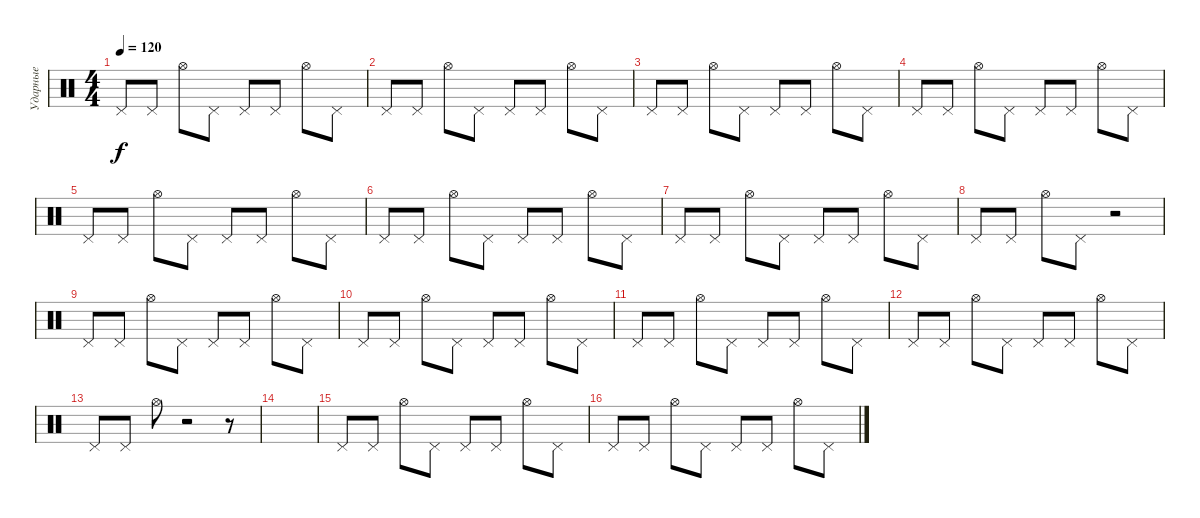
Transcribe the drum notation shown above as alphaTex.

\track ("Ударные" "Ударные") {instrument percussion}
\staff {score}
\articulation defaults
\ts (4 4)
\tempo 120
\clef neutral
\ks c "Pedal Hi-Hat (hit)".8{dy f} "Pedal Hi-Hat (hit)".8 "Hi-Hat (open)".8 "Pedal Hi-Hat (hit)".8 "Pedal Hi-Hat (hit)".8 "Pedal Hi-Hat (hit)".8 "Hi-Hat (open)".8 "Pedal Hi-Hat (hit)".8
|
"Pedal Hi-Hat (hit)".8 "Pedal Hi-Hat (hit)".8 "Hi-Hat (open)".8 "Pedal Hi-Hat (hit)".8 "Pedal Hi-Hat (hit)".8 "Pedal Hi-Hat (hit)".8 "Hi-Hat (open)".8 "Pedal Hi-Hat (hit)".8 |
"Pedal Hi-Hat (hit)".8 "Pedal Hi-Hat (hit)".8 "Hi-Hat (open)".8 "Pedal Hi-Hat (hit)".8 "Pedal Hi-Hat (hit)".8 "Pedal Hi-Hat (hit)".8 "Hi-Hat (open)".8 "Pedal Hi-Hat (hit)".8 |
"Pedal Hi-Hat (hit)".8 "Pedal Hi-Hat (hit)".8 "Hi-Hat (open)".8 "Pedal Hi-Hat (hit)".8 "Pedal Hi-Hat (hit)".8 "Pedal Hi-Hat (hit)".8 "Hi-Hat (open)".8 "Pedal Hi-Hat (hit)".8 |
"Pedal Hi-Hat (hit)".8 "Pedal Hi-Hat (hit)".8 "Hi-Hat (open)".8 "Pedal Hi-Hat (hit)".8 "Pedal Hi-Hat (hit)".8 "Pedal Hi-Hat (hit)".8 "Hi-Hat (open)".8 "Pedal Hi-Hat (hit)".8 |
"Pedal Hi-Hat (hit)".8 "Pedal Hi-Hat (hit)".8 "Hi-Hat (open)".8 "Pedal Hi-Hat (hit)".8 "Pedal Hi-Hat (hit)".8 "Pedal Hi-Hat (hit)".8 "Hi-Hat (open)".8 "Pedal Hi-Hat (hit)".8 |
"Pedal Hi-Hat (hit)".8 "Pedal Hi-Hat (hit)".8 "Hi-Hat (open)".8 "Pedal Hi-Hat (hit)".8 "Pedal Hi-Hat (hit)".8 "Pedal Hi-Hat (hit)".8 "Hi-Hat (open)".8 "Pedal Hi-Hat (hit)".8 |
"Pedal Hi-Hat (hit)".8 "Pedal Hi-Hat (hit)".8 "Hi-Hat (open)".8 "Pedal Hi-Hat (hit)".8 r.2 |
"Pedal Hi-Hat (hit)".8 "Pedal Hi-Hat (hit)".8 "Hi-Hat (open)".8 "Pedal Hi-Hat (hit)".8 "Pedal Hi-Hat (hit)".8 "Pedal Hi-Hat (hit)".8 "Hi-Hat (open)".8 "Pedal Hi-Hat (hit)".8 |
"Pedal Hi-Hat (hit)".8 "Pedal Hi-Hat (hit)".8 "Hi-Hat (open)".8 "Pedal Hi-Hat (hit)".8 "Pedal Hi-Hat (hit)".8 "Pedal Hi-Hat (hit)".8 "Hi-Hat (open)".8 "Pedal Hi-Hat (hit)".8 |
"Pedal Hi-Hat (hit)".8 "Pedal Hi-Hat (hit)".8 "Hi-Hat (open)".8 "Pedal Hi-Hat (hit)".8 "Pedal Hi-Hat (hit)".8 "Pedal Hi-Hat (hit)".8 "Hi-Hat (open)".8 "Pedal Hi-Hat (hit)".8 |
"Pedal Hi-Hat (hit)".8 "Pedal Hi-Hat (hit)".8 "Hi-Hat (open)".8 "Pedal Hi-Hat (hit)".8 "Pedal Hi-Hat (hit)".8 "Pedal Hi-Hat (hit)".8 "Hi-Hat (open)".8 "Pedal Hi-Hat (hit)".8 |
"Pedal Hi-Hat (hit)".8 "Pedal Hi-Hat (hit)".8 "Hi-Hat (open)".8 r.2 r.8 |
|
"Pedal Hi-Hat (hit)".8 "Pedal Hi-Hat (hit)".8 "Hi-Hat (open)".8 "Pedal Hi-Hat (hit)".8 "Pedal Hi-Hat (hit)".8 "Pedal Hi-Hat (hit)".8 "Hi-Hat (open)".8 "Pedal Hi-Hat (hit)".8 |
"Pedal Hi-Hat (hit)".8 "Pedal Hi-Hat (hit)".8 "Hi-Hat (open)".8 "Pedal Hi-Hat (hit)".8 "Pedal Hi-Hat (hit)".8 "Pedal Hi-Hat (hit)".8 "Hi-Hat (open)".8 "Pedal Hi-Hat (hit)".8
